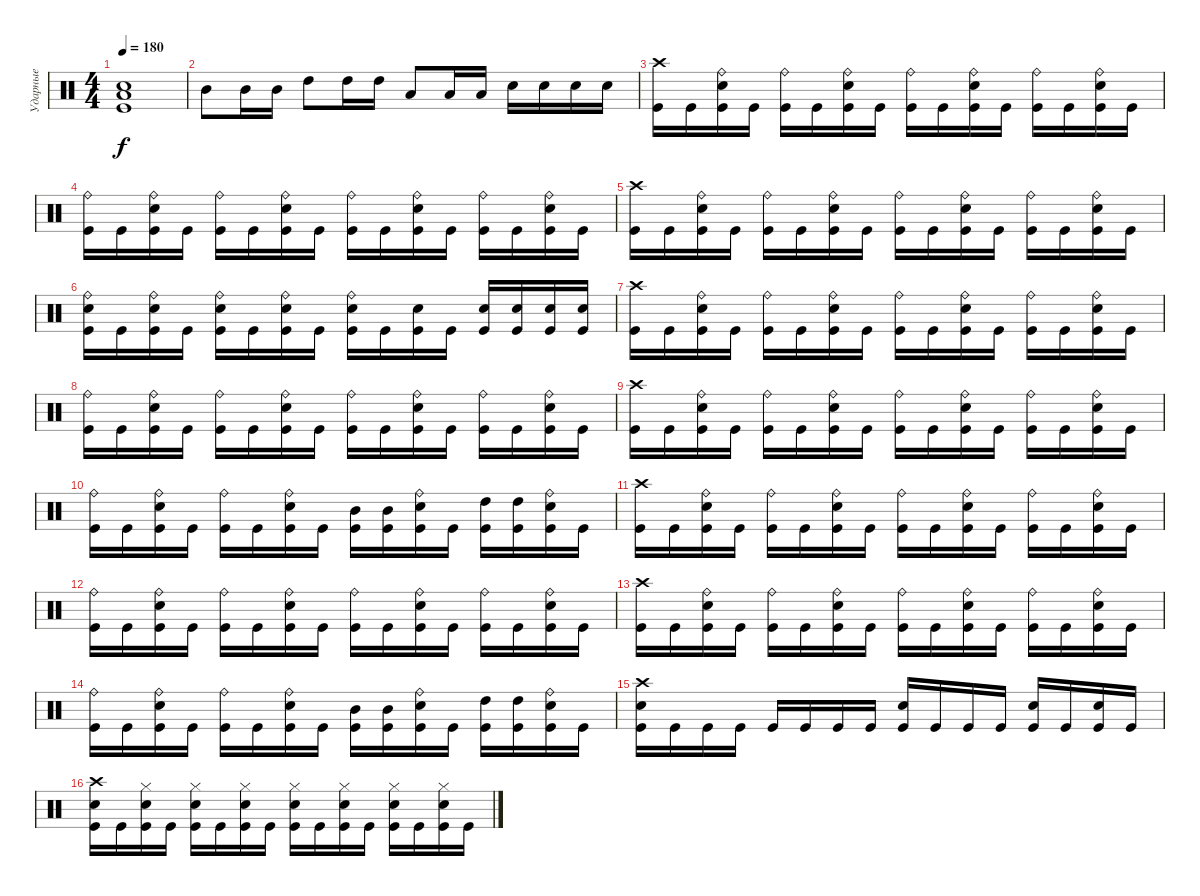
\track ("Ударные" "Ударные") {instrument percussion}
\staff {score}
\articulation defaults
\ts (4 4)
\tempo 180
\clef neutral
\ks c
("Low Tom (hit)" "Electric Snare (hit)" "Kick (hit)").1{dy f} |
"Mid Tom (hit)".8 "Mid Tom (hit)".16 "Mid Tom (hit)".16 "High Tom (hit)".8 "High Tom (hit)".16 "High Tom (hit)".16 "Low Tom (hit)".8 "Low Tom (hit)".16 "Low Tom (hit)".16 "Electric Snare (hit)".16 "Electric Snare (hit)".16 "Electric Snare (hit)".16 "Electric Snare (hit)".16 |
("Crash high (hit)" "Kick (hit)").16 "Kick (hit)".16 ("Ride (bell)" "Electric Snare (hit)" "Kick (hit)").16 "Kick (hit)".16 ("Ride (bell)" "Kick (hit)").16 "Kick (hit)".16 ("Ride (bell)" "Electric Snare (hit)" "Kick (hit)").16 "Kick (hit)".16 ("Ride (bell)" "Kick (hit)").16 "Kick (hit)".16 ("Ride (bell)" "Electric Snare (hit)" "Kick (hit)").16 "Kick (hit)".16 ("Ride (bell)" "Kick (hit)").16 "Kick (hit)".16 ("Ride (bell)" "Electric Snare (hit)" "Kick (hit)").16 "Kick (hit)".16 |
("Ride (bell)" "Kick (hit)").16 "Kick (hit)".16 ("Ride (bell)" "Electric Snare (hit)" "Kick (hit)").16 "Kick (hit)".16 ("Ride (bell)" "Kick (hit)").16 "Kick (hit)".16 ("Ride (bell)" "Electric Snare (hit)" "Kick (hit)").16 "Kick (hit)".16 ("Ride (bell)" "Kick (hit)").16 "Kick (hit)".16 ("Ride (bell)" "Electric Snare (hit)" "Kick (hit)").16 "Kick (hit)".16 ("Ride (bell)" "Kick (hit)").16 "Kick (hit)".16 ("Ride (bell)" "Electric Snare (hit)" "Kick (hit)").16 "Kick (hit)".16 |
("Crash high (hit)" "Kick (hit)").16 "Kick (hit)".16 ("Ride (bell)" "Electric Snare (hit)" "Kick (hit)").16 "Kick (hit)".16 ("Ride (bell)" "Kick (hit)").16 "Kick (hit)".16 ("Ride (bell)" "Electric Snare (hit)" "Kick (hit)").16 "Kick (hit)".16 ("Ride (bell)" "Kick (hit)").16 "Kick (hit)".16 ("Ride (bell)" "Electric Snare (hit)" "Kick (hit)").16 "Kick (hit)".16 ("Ride (bell)" "Kick (hit)").16 "Kick (hit)".16 ("Ride (bell)" "Electric Snare (hit)" "Kick (hit)").16 "Kick (hit)".16 |
("Ride (bell)" "Electric Snare (hit)" "Kick (hit)").16 "Kick (hit)".16 ("Ride (bell)" "Electric Snare (hit)" "Kick (hit)").16 "Kick (hit)".16 ("Ride (bell)" "Electric Snare (hit)" "Kick (hit)").16 "Kick (hit)".16 ("Ride (bell)" "Electric Snare (hit)" "Kick (hit)").16 "Kick (hit)".16 ("Ride (bell)" "Electric Snare (hit)" "Kick (hit)").16 "Kick (hit)".16 ("Electric Snare (hit)" "Kick (hit)").16 "Kick (hit)".16 ("Electric Snare (hit)" "Kick (hit)").16 ("Electric Snare (hit)" "Kick (hit)").16 ("Electric Snare (hit)" "Kick (hit)").16 ("Electric Snare (hit)" "Kick (hit)").16 |
("Crash high (hit)" "Kick (hit)").16 "Kick (hit)".16 ("Ride (bell)" "Electric Snare (hit)" "Kick (hit)").16 "Kick (hit)".16 ("Ride (bell)" "Kick (hit)").16 "Kick (hit)".16 ("Ride (bell)" "Electric Snare (hit)" "Kick (hit)").16 "Kick (hit)".16 ("Ride (bell)" "Kick (hit)").16 "Kick (hit)".16 ("Ride (bell)" "Electric Snare (hit)" "Kick (hit)").16 "Kick (hit)".16 ("Ride (bell)" "Kick (hit)").16 "Kick (hit)".16 ("Ride (bell)" "Electric Snare (hit)" "Kick (hit)").16 "Kick (hit)".16 |
("Ride (bell)" "Kick (hit)").16 "Kick (hit)".16 ("Ride (bell)" "Electric Snare (hit)" "Kick (hit)").16 "Kick (hit)".16 ("Ride (bell)" "Kick (hit)").16 "Kick (hit)".16 ("Ride (bell)" "Electric Snare (hit)" "Kick (hit)").16 "Kick (hit)".16 ("Ride (bell)" "Kick (hit)").16 "Kick (hit)".16 ("Ride (bell)" "Electric Snare (hit)" "Kick (hit)").16 "Kick (hit)".16 ("Ride (bell)" "Kick (hit)").16 "Kick (hit)".16 ("Ride (bell)" "Electric Snare (hit)" "Kick (hit)").16 "Kick (hit)".16 |
("Crash high (hit)" "Kick (hit)").16 "Kick (hit)".16 ("Ride (bell)" "Electric Snare (hit)" "Kick (hit)").16 "Kick (hit)".16 ("Ride (bell)" "Kick (hit)").16 "Kick (hit)".16 ("Ride (bell)" "Electric Snare (hit)" "Kick (hit)").16 "Kick (hit)".16 ("Ride (bell)" "Kick (hit)").16 "Kick (hit)".16 ("Ride (bell)" "Electric Snare (hit)" "Kick (hit)").16 "Kick (hit)".16 ("Ride (bell)" "Kick (hit)").16 "Kick (hit)".16 ("Ride (bell)" "Electric Snare (hit)" "Kick (hit)").16 "Kick (hit)".16 |
("Ride (bell)" "Kick (hit)").16 "Kick (hit)".16 ("Ride (bell)" "Electric Snare (hit)" "Kick (hit)").16 "Kick (hit)".16 ("Ride (bell)" "Kick (hit)").16 "Kick (hit)".16 ("Ride (bell)" "Electric Snare (hit)" "Kick (hit)").16 "Kick (hit)".16 ("Mid Tom (hit)" "Kick (hit)").16 ("Mid Tom (hit)" "Kick (hit)").16 ("Ride (bell)" "Electric Snare (hit)" "Kick (hit)").16 "Kick (hit)".16 ("High Tom (hit)" "Kick (hit)").16 ("High Tom (hit)" "Kick (hit)").16 ("Ride (bell)" "Electric Snare (hit)" "Kick (hit)").16 "Kick (hit)".16 |
("Crash high (hit)" "Kick (hit)").16 "Kick (hit)".16 ("Ride (bell)" "Electric Snare (hit)" "Kick (hit)").16 "Kick (hit)".16 ("Ride (bell)" "Kick (hit)").16 "Kick (hit)".16 ("Ride (bell)" "Electric Snare (hit)" "Kick (hit)").16 "Kick (hit)".16 ("Ride (bell)" "Kick (hit)").16 "Kick (hit)".16 ("Ride (bell)" "Electric Snare (hit)" "Kick (hit)").16 "Kick (hit)".16 ("Ride (bell)" "Kick (hit)").16 "Kick (hit)".16 ("Ride (bell)" "Electric Snare (hit)" "Kick (hit)").16 "Kick (hit)".16 |
("Ride (bell)" "Kick (hit)").16 "Kick (hit)".16 ("Ride (bell)" "Electric Snare (hit)" "Kick (hit)").16 "Kick (hit)".16 ("Ride (bell)" "Kick (hit)").16 "Kick (hit)".16 ("Ride (bell)" "Electric Snare (hit)" "Kick (hit)").16 "Kick (hit)".16 ("Ride (bell)" "Kick (hit)").16 "Kick (hit)".16 ("Ride (bell)" "Electric Snare (hit)" "Kick (hit)").16 "Kick (hit)".16 ("Ride (bell)" "Kick (hit)").16 "Kick (hit)".16 ("Ride (bell)" "Electric Snare (hit)" "Kick (hit)").16 "Kick (hit)".16 |
("Crash high (hit)" "Kick (hit)").16 "Kick (hit)".16 ("Ride (bell)" "Electric Snare (hit)" "Kick (hit)").16 "Kick (hit)".16 ("Ride (bell)" "Kick (hit)").16 "Kick (hit)".16 ("Ride (bell)" "Electric Snare (hit)" "Kick (hit)").16 "Kick (hit)".16 ("Ride (bell)" "Kick (hit)").16 "Kick (hit)".16 ("Ride (bell)" "Electric Snare (hit)" "Kick (hit)").16 "Kick (hit)".16 ("Ride (bell)" "Kick (hit)").16 "Kick (hit)".16 ("Ride (bell)" "Electric Snare (hit)" "Kick (hit)").16 "Kick (hit)".16 |
("Ride (bell)" "Kick (hit)").16 "Kick (hit)".16 ("Ride (bell)" "Electric Snare (hit)" "Kick (hit)").16 "Kick (hit)".16 ("Ride (bell)" "Kick (hit)").16 "Kick (hit)".16 ("Ride (bell)" "Electric Snare (hit)" "Kick (hit)").16 "Kick (hit)".16 ("Mid Tom (hit)" "Kick (hit)").16 ("Mid Tom (hit)" "Kick (hit)").16 ("Ride (bell)" "Electric Snare (hit)" "Kick (hit)").16 "Kick (hit)".16 ("High Tom (hit)" "Kick (hit)").16 ("High Tom (hit)" "Kick (hit)").16 ("Ride (bell)" "Electric Snare (hit)" "Kick (hit)").16 "Kick (hit)".16 |
("Crash high (hit)" "Electric Snare (hit)" "Kick (hit)").16 "Kick (hit)".16 "Kick (hit)".16 "Kick (hit)".16 "Kick (hit)".16 "Kick (hit)".16 "Kick (hit)".16 "Kick (hit)".16 ("Electric Snare (hit)" "Kick (hit)").16 "Kick (hit)".16 "Kick (hit)".16 "Kick (hit)".16 ("Electric Snare (hit)" "Kick (hit)").16 "Kick (hit)".16 ("Electric Snare (hit)" "Kick (hit)").16 "Kick (hit)".16 |
("Crash high (hit)" "Electric Snare (hit)" "Kick (hit)").16 "Kick (hit)".16 ("Hi-Hat (closed)" "Electric Snare (hit)" "Kick (hit)").16 "Kick (hit)".16 ("Hi-Hat (closed)" "Electric Snare (hit)" "Kick (hit)").16 "Kick (hit)".16 ("Hi-Hat (closed)" "Electric Snare (hit)" "Kick (hit)").16 "Kick (hit)".16 ("Hi-Hat (closed)" "Electric Snare (hit)" "Kick (hit)").16 "Kick (hit)".16 ("Hi-Hat (closed)" "Electric Snare (hit)" "Kick (hit)").16 "Kick (hit)".16 ("Hi-Hat (closed)" "Electric Snare (hit)" "Kick (hit)").16 "Kick (hit)".16 ("Hi-Hat (closed)" "Electric Snare (hit)" "Kick (hit)").16 "Kick (hit)".16
